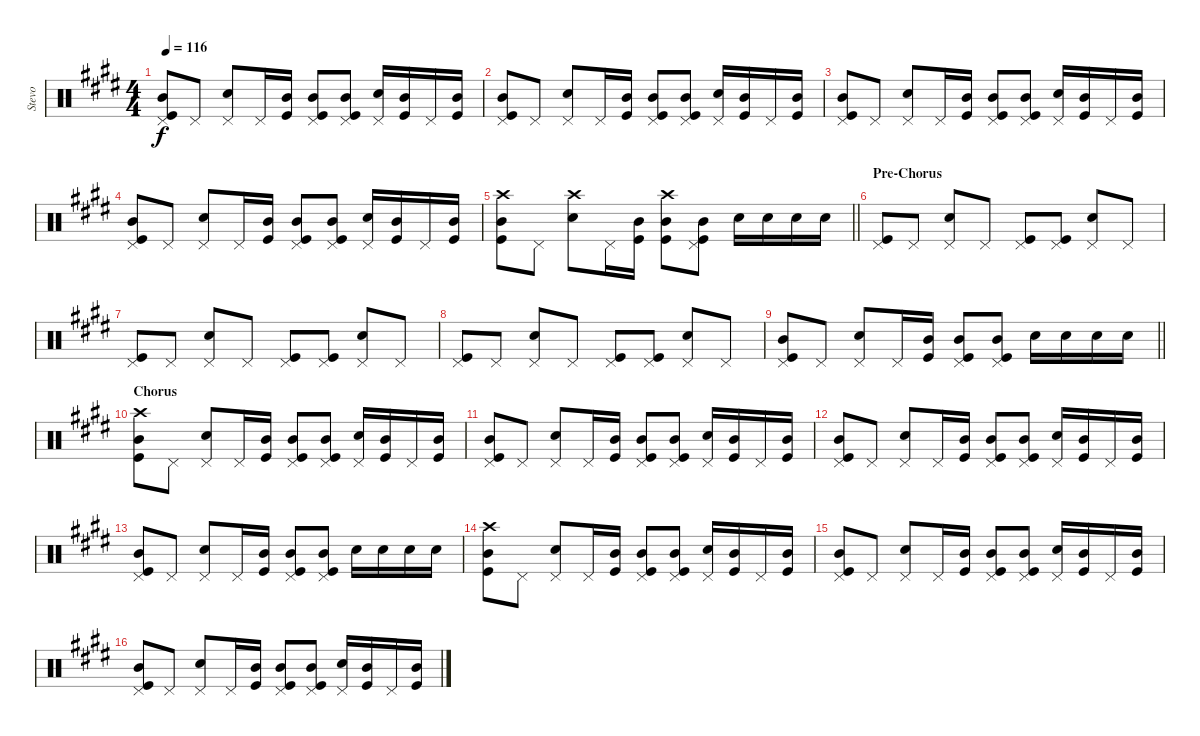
\track ("Stevo" "Stevo") {instrument percussion}
\staff {score}
\articulation defaults
\ts (4 4)
\tempo 116
\clef neutral
\ks e
("Kick (hit)" "Pedal Hi-Hat (hit)" "Mid Tom (hit)").8{dy f} "Pedal Hi-Hat (hit)".8 ("Electric Snare (hit)" "Pedal Hi-Hat (hit)").8 "Pedal Hi-Hat (hit)".16 ("Kick (hit)" "Mid Tom (hit)").16 ("Kick (hit)" "Pedal Hi-Hat (hit)" "Mid Tom (hit)").8 ("Kick (hit)" "Pedal Hi-Hat (hit)" "Mid Tom (hit)").8 ("Electric Snare (hit)" "Pedal Hi-Hat (hit)").16 ("Kick (hit)" "Mid Tom (hit)").16 "Pedal Hi-Hat (hit)".16 ("Kick (hit)" "Mid Tom (hit)").16 |
("Kick (hit)" "Pedal Hi-Hat (hit)" "Mid Tom (hit)").8 "Pedal Hi-Hat (hit)".8 ("Electric Snare (hit)" "Pedal Hi-Hat (hit)").8 "Pedal Hi-Hat (hit)".16 ("Kick (hit)" "Mid Tom (hit)").16 ("Kick (hit)" "Pedal Hi-Hat (hit)" "Mid Tom (hit)").8 ("Kick (hit)" "Pedal Hi-Hat (hit)" "Mid Tom (hit)").8 ("Electric Snare (hit)" "Pedal Hi-Hat (hit)").16 ("Kick (hit)" "Mid Tom (hit)").16 "Pedal Hi-Hat (hit)".16 ("Kick (hit)" "Mid Tom (hit)").16 |
("Kick (hit)" "Pedal Hi-Hat (hit)" "Mid Tom (hit)").8 "Pedal Hi-Hat (hit)".8 ("Electric Snare (hit)" "Pedal Hi-Hat (hit)").8 "Pedal Hi-Hat (hit)".16 ("Kick (hit)" "Mid Tom (hit)").16 ("Kick (hit)" "Pedal Hi-Hat (hit)" "Mid Tom (hit)").8 ("Kick (hit)" "Pedal Hi-Hat (hit)" "Mid Tom (hit)").8 ("Electric Snare (hit)" "Pedal Hi-Hat (hit)").16 ("Kick (hit)" "Mid Tom (hit)").16 "Pedal Hi-Hat (hit)".16 ("Kick (hit)" "Mid Tom (hit)").16 |
("Kick (hit)" "Pedal Hi-Hat (hit)" "Mid Tom (hit)").8 "Pedal Hi-Hat (hit)".8 ("Electric Snare (hit)" "Pedal Hi-Hat (hit)").8 "Pedal Hi-Hat (hit)".16 ("Kick (hit)" "Mid Tom (hit)").16 ("Kick (hit)" "Pedal Hi-Hat (hit)" "Mid Tom (hit)").8 ("Kick (hit)" "Pedal Hi-Hat (hit)" "Mid Tom (hit)").8 ("Electric Snare (hit)" "Pedal Hi-Hat (hit)").16 ("Kick (hit)" "Mid Tom (hit)").16 "Pedal Hi-Hat (hit)".16 ("Kick (hit)" "Mid Tom (hit)").16 |
\barLineRight lightlight
("Kick (hit)" "Crash high (hit)" "Mid Tom (hit)").8 "Pedal Hi-Hat (hit)".8 ("Electric Snare (hit)" "Crash high (hit)").8 "Pedal Hi-Hat (hit)".16 ("Kick (hit)" "Mid Tom (hit)").16 ("Kick (hit)" "Crash high (hit)" "Mid Tom (hit)").8 ("Kick (hit)" "Pedal Hi-Hat (hit)" "Mid Tom (hit)").8 "Electric Snare (hit)".16 "Electric Snare (hit)".16 "Electric Snare (hit)".16 "Electric Snare (hit)".16 |
\section ("" "Pre-Chorus")
("Kick (hit)" "Pedal Hi-Hat (hit)").8 "Pedal Hi-Hat (hit)".8 ("Electric Snare (hit)" "Pedal Hi-Hat (hit)").8 "Pedal Hi-Hat (hit)".8 ("Kick (hit)" "Pedal Hi-Hat (hit)").8 ("Kick (hit)" "Pedal Hi-Hat (hit)").8 ("Electric Snare (hit)" "Pedal Hi-Hat (hit)").8 "Pedal Hi-Hat (hit)".8 |
("Kick (hit)" "Pedal Hi-Hat (hit)").8 "Pedal Hi-Hat (hit)".8 ("Electric Snare (hit)" "Pedal Hi-Hat (hit)").8 "Pedal Hi-Hat (hit)".8 ("Kick (hit)" "Pedal Hi-Hat (hit)").8 ("Kick (hit)" "Pedal Hi-Hat (hit)").8 ("Electric Snare (hit)" "Pedal Hi-Hat (hit)").8 "Pedal Hi-Hat (hit)".8 |
("Kick (hit)" "Pedal Hi-Hat (hit)").8 "Pedal Hi-Hat (hit)".8 ("Electric Snare (hit)" "Pedal Hi-Hat (hit)").8 "Pedal Hi-Hat (hit)".8 ("Kick (hit)" "Pedal Hi-Hat (hit)").8 ("Kick (hit)" "Pedal Hi-Hat (hit)").8 ("Electric Snare (hit)" "Pedal Hi-Hat (hit)").8 "Pedal Hi-Hat (hit)".8 |
\barLineRight lightlight
("Kick (hit)" "Pedal Hi-Hat (hit)" "Mid Tom (hit)").8 "Pedal Hi-Hat (hit)".8 ("Electric Snare (hit)" "Pedal Hi-Hat (hit)").8 "Pedal Hi-Hat (hit)".16 ("Kick (hit)" "Mid Tom (hit)").16 ("Kick (hit)" "Pedal Hi-Hat (hit)" "Mid Tom (hit)").8 ("Kick (hit)" "Pedal Hi-Hat (hit)" "Mid Tom (hit)").8 "Electric Snare (hit)".16 "Electric Snare (hit)".16 "Electric Snare (hit)".16 "Electric Snare (hit)".16 |
\section ("" "Chorus")
("Kick (hit)" "Crash high (hit)" "Mid Tom (hit)").8 "Pedal Hi-Hat (hit)".8 ("Electric Snare (hit)" "Pedal Hi-Hat (hit)").8 "Pedal Hi-Hat (hit)".16 ("Kick (hit)" "Mid Tom (hit)").16 ("Kick (hit)" "Pedal Hi-Hat (hit)" "Mid Tom (hit)").8 ("Kick (hit)" "Pedal Hi-Hat (hit)" "Mid Tom (hit)").8 ("Electric Snare (hit)" "Pedal Hi-Hat (hit)").16 ("Kick (hit)" "Mid Tom (hit)").16 "Pedal Hi-Hat (hit)".16 ("Kick (hit)" "Mid Tom (hit)").16 |
("Kick (hit)" "Pedal Hi-Hat (hit)" "Mid Tom (hit)").8 "Pedal Hi-Hat (hit)".8 ("Electric Snare (hit)" "Pedal Hi-Hat (hit)").8 "Pedal Hi-Hat (hit)".16 ("Kick (hit)" "Mid Tom (hit)").16 ("Kick (hit)" "Pedal Hi-Hat (hit)" "Mid Tom (hit)").8 ("Kick (hit)" "Pedal Hi-Hat (hit)" "Mid Tom (hit)").8 ("Electric Snare (hit)" "Pedal Hi-Hat (hit)").16 ("Kick (hit)" "Mid Tom (hit)").16 "Pedal Hi-Hat (hit)".16 ("Kick (hit)" "Mid Tom (hit)").16 |
("Kick (hit)" "Pedal Hi-Hat (hit)" "Mid Tom (hit)").8 "Pedal Hi-Hat (hit)".8 ("Electric Snare (hit)" "Pedal Hi-Hat (hit)").8 "Pedal Hi-Hat (hit)".16 ("Kick (hit)" "Mid Tom (hit)").16 ("Kick (hit)" "Pedal Hi-Hat (hit)" "Mid Tom (hit)").8 ("Kick (hit)" "Pedal Hi-Hat (hit)" "Mid Tom (hit)").8 ("Electric Snare (hit)" "Pedal Hi-Hat (hit)").16 ("Kick (hit)" "Mid Tom (hit)").16 "Pedal Hi-Hat (hit)".16 ("Kick (hit)" "Mid Tom (hit)").16 |
("Kick (hit)" "Pedal Hi-Hat (hit)" "Mid Tom (hit)").8 "Pedal Hi-Hat (hit)".8 ("Electric Snare (hit)" "Pedal Hi-Hat (hit)").8 "Pedal Hi-Hat (hit)".16 ("Kick (hit)" "Mid Tom (hit)").16 ("Kick (hit)" "Pedal Hi-Hat (hit)" "Mid Tom (hit)").8 ("Kick (hit)" "Pedal Hi-Hat (hit)" "Mid Tom (hit)").8 "Electric Snare (hit)".16 "Electric Snare (hit)".16 "Electric Snare (hit)".16 "Electric Snare (hit)".16 |
("Kick (hit)" "Crash high (hit)" "Mid Tom (hit)").8 "Pedal Hi-Hat (hit)".8 ("Electric Snare (hit)" "Pedal Hi-Hat (hit)").8 "Pedal Hi-Hat (hit)".16 ("Kick (hit)" "Mid Tom (hit)").16 ("Kick (hit)" "Pedal Hi-Hat (hit)" "Mid Tom (hit)").8 ("Kick (hit)" "Pedal Hi-Hat (hit)" "Mid Tom (hit)").8 ("Electric Snare (hit)" "Pedal Hi-Hat (hit)").16 ("Kick (hit)" "Mid Tom (hit)").16 "Pedal Hi-Hat (hit)".16 ("Kick (hit)" "Mid Tom (hit)").16 |
("Kick (hit)" "Pedal Hi-Hat (hit)" "Mid Tom (hit)").8 "Pedal Hi-Hat (hit)".8 ("Electric Snare (hit)" "Pedal Hi-Hat (hit)").8 "Pedal Hi-Hat (hit)".16 ("Kick (hit)" "Mid Tom (hit)").16 ("Kick (hit)" "Pedal Hi-Hat (hit)" "Mid Tom (hit)").8 ("Kick (hit)" "Pedal Hi-Hat (hit)" "Mid Tom (hit)").8 ("Electric Snare (hit)" "Pedal Hi-Hat (hit)").16 ("Kick (hit)" "Mid Tom (hit)").16 "Pedal Hi-Hat (hit)".16 ("Kick (hit)" "Mid Tom (hit)").16 |
("Kick (hit)" "Pedal Hi-Hat (hit)" "Mid Tom (hit)").8 "Pedal Hi-Hat (hit)".8 ("Electric Snare (hit)" "Pedal Hi-Hat (hit)").8 "Pedal Hi-Hat (hit)".16 ("Kick (hit)" "Mid Tom (hit)").16 ("Kick (hit)" "Pedal Hi-Hat (hit)" "Mid Tom (hit)").8 ("Kick (hit)" "Pedal Hi-Hat (hit)" "Mid Tom (hit)").8 ("Electric Snare (hit)" "Pedal Hi-Hat (hit)").16 ("Kick (hit)" "Mid Tom (hit)").16 "Pedal Hi-Hat (hit)".16 ("Kick (hit)" "Mid Tom (hit)").16
